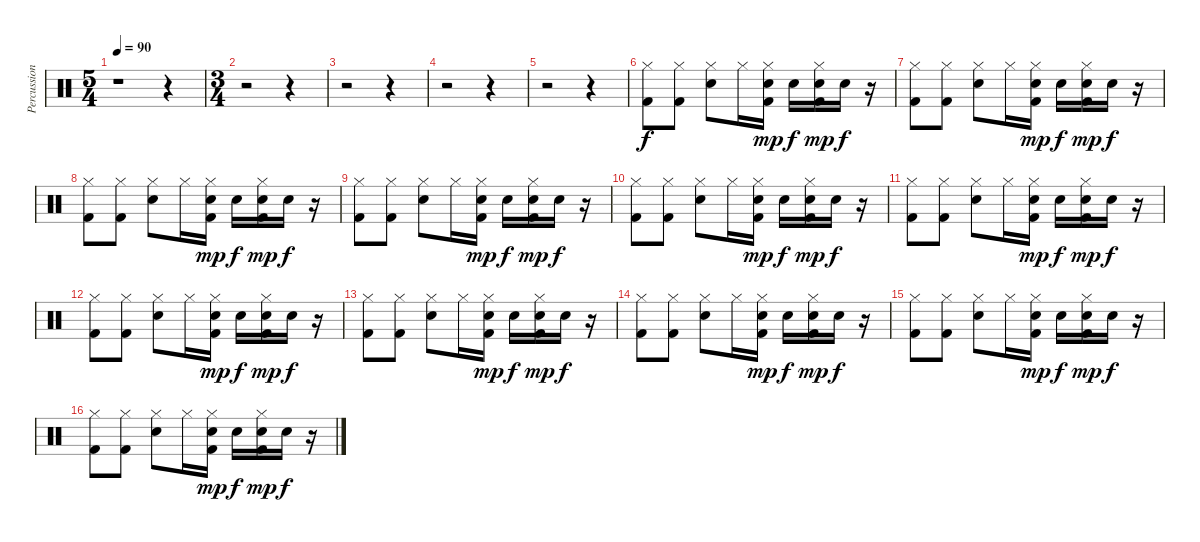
\track ("Percussions" "Percussion") {instrument percussion}
\staff {score}
\articulation defaults
\ts (5 4)
\tempo 90
\clef neutral
\ks c
r.1{dy f} r.4 |
\ts (3 4)
r.2 r.4 |
r.2 r.4 |
r.2 r.4 |
r.2 r.4 |
("Hi-Hat (closed)" "Kick (hit) 2").8 ("Hi-Hat (closed)" "Kick (hit) 2").8 ("Hi-Hat (closed)" "Electric Snare (hit)").8 "Hi-Hat (closed)".16 ("Hi-Hat (closed)" "Electric Snare (hit)" "Kick (hit) 2").16{dy mp} "Electric Snare (hit)".16{dy f} ("Hi-Hat (closed)" "Electric Snare (hit)" "Kick (hit) 2").16{dy mp} "Electric Snare (hit)".16{dy f} r.16 |
("Hi-Hat (closed)" "Kick (hit) 2").8 ("Hi-Hat (closed)" "Kick (hit) 2").8 ("Hi-Hat (closed)" "Electric Snare (hit)").8 "Hi-Hat (closed)".16 ("Hi-Hat (closed)" "Electric Snare (hit)" "Kick (hit) 2").16{dy mp} "Electric Snare (hit)".16{dy f} ("Hi-Hat (closed)" "Electric Snare (hit)" "Kick (hit) 2").16{dy mp} "Electric Snare (hit)".16{dy f} r.16 |
("Hi-Hat (closed)" "Kick (hit) 2").8 ("Hi-Hat (closed)" "Kick (hit) 2").8 ("Hi-Hat (closed)" "Electric Snare (hit)").8 "Hi-Hat (closed)".16 ("Hi-Hat (closed)" "Electric Snare (hit)" "Kick (hit) 2").16{dy mp} "Electric Snare (hit)".16{dy f} ("Hi-Hat (closed)" "Electric Snare (hit)" "Kick (hit) 2").16{dy mp} "Electric Snare (hit)".16{dy f} r.16 |
("Hi-Hat (closed)" "Kick (hit) 2").8 ("Hi-Hat (closed)" "Kick (hit) 2").8 ("Hi-Hat (closed)" "Electric Snare (hit)").8 "Hi-Hat (closed)".16 ("Hi-Hat (closed)" "Electric Snare (hit)" "Kick (hit) 2").16{dy mp} "Electric Snare (hit)".16{dy f} ("Hi-Hat (closed)" "Electric Snare (hit)" "Kick (hit) 2").16{dy mp} "Electric Snare (hit)".16{dy f} r.16 |
("Hi-Hat (closed)" "Kick (hit) 2").8 ("Hi-Hat (closed)" "Kick (hit) 2").8 ("Hi-Hat (closed)" "Electric Snare (hit)").8 "Hi-Hat (closed)".16 ("Hi-Hat (closed)" "Electric Snare (hit)" "Kick (hit) 2").16{dy mp} "Electric Snare (hit)".16{dy f} ("Hi-Hat (closed)" "Electric Snare (hit)" "Kick (hit) 2").16{dy mp} "Electric Snare (hit)".16{dy f} r.16 |
("Hi-Hat (closed)" "Kick (hit) 2").8 ("Hi-Hat (closed)" "Kick (hit) 2").8 ("Hi-Hat (closed)" "Electric Snare (hit)").8 "Hi-Hat (closed)".16 ("Hi-Hat (closed)" "Electric Snare (hit)" "Kick (hit) 2").16{dy mp} "Electric Snare (hit)".16{dy f} ("Hi-Hat (closed)" "Electric Snare (hit)" "Kick (hit) 2").16{dy mp} "Electric Snare (hit)".16{dy f} r.16 |
("Hi-Hat (closed)" "Kick (hit) 2").8 ("Hi-Hat (closed)" "Kick (hit) 2").8 ("Hi-Hat (closed)" "Electric Snare (hit)").8 "Hi-Hat (closed)".16 ("Hi-Hat (closed)" "Electric Snare (hit)" "Kick (hit) 2").16{dy mp} "Electric Snare (hit)".16{dy f} ("Hi-Hat (closed)" "Electric Snare (hit)" "Kick (hit) 2").16{dy mp} "Electric Snare (hit)".16{dy f} r.16 |
("Hi-Hat (closed)" "Kick (hit) 2").8 ("Hi-Hat (closed)" "Kick (hit) 2").8 ("Hi-Hat (closed)" "Electric Snare (hit)").8 "Hi-Hat (closed)".16 ("Hi-Hat (closed)" "Electric Snare (hit)" "Kick (hit) 2").16{dy mp} "Electric Snare (hit)".16{dy f} ("Hi-Hat (closed)" "Electric Snare (hit)" "Kick (hit) 2").16{dy mp} "Electric Snare (hit)".16{dy f} r.16 |
("Hi-Hat (closed)" "Kick (hit) 2").8 ("Hi-Hat (closed)" "Kick (hit) 2").8 ("Hi-Hat (closed)" "Electric Snare (hit)").8 "Hi-Hat (closed)".16 ("Hi-Hat (closed)" "Electric Snare (hit)" "Kick (hit) 2").16{dy mp} "Electric Snare (hit)".16{dy f} ("Hi-Hat (closed)" "Electric Snare (hit)" "Kick (hit) 2").16{dy mp} "Electric Snare (hit)".16{dy f} r.16 |
("Hi-Hat (closed)" "Kick (hit) 2").8 ("Hi-Hat (closed)" "Kick (hit) 2").8 ("Hi-Hat (closed)" "Electric Snare (hit)").8 "Hi-Hat (closed)".16 ("Hi-Hat (closed)" "Electric Snare (hit)" "Kick (hit) 2").16{dy mp} "Electric Snare (hit)".16{dy f} ("Hi-Hat (closed)" "Electric Snare (hit)" "Kick (hit) 2").16{dy mp} "Electric Snare (hit)".16{dy f} r.16 |
("Hi-Hat (closed)" "Kick (hit) 2").8 ("Hi-Hat (closed)" "Kick (hit) 2").8 ("Hi-Hat (closed)" "Electric Snare (hit)").8 "Hi-Hat (closed)".16 ("Hi-Hat (closed)" "Electric Snare (hit)" "Kick (hit) 2").16{dy mp} "Electric Snare (hit)".16{dy f} ("Hi-Hat (closed)" "Electric Snare (hit)" "Kick (hit) 2").16{dy mp} "Electric Snare (hit)".16{dy f} r.16
